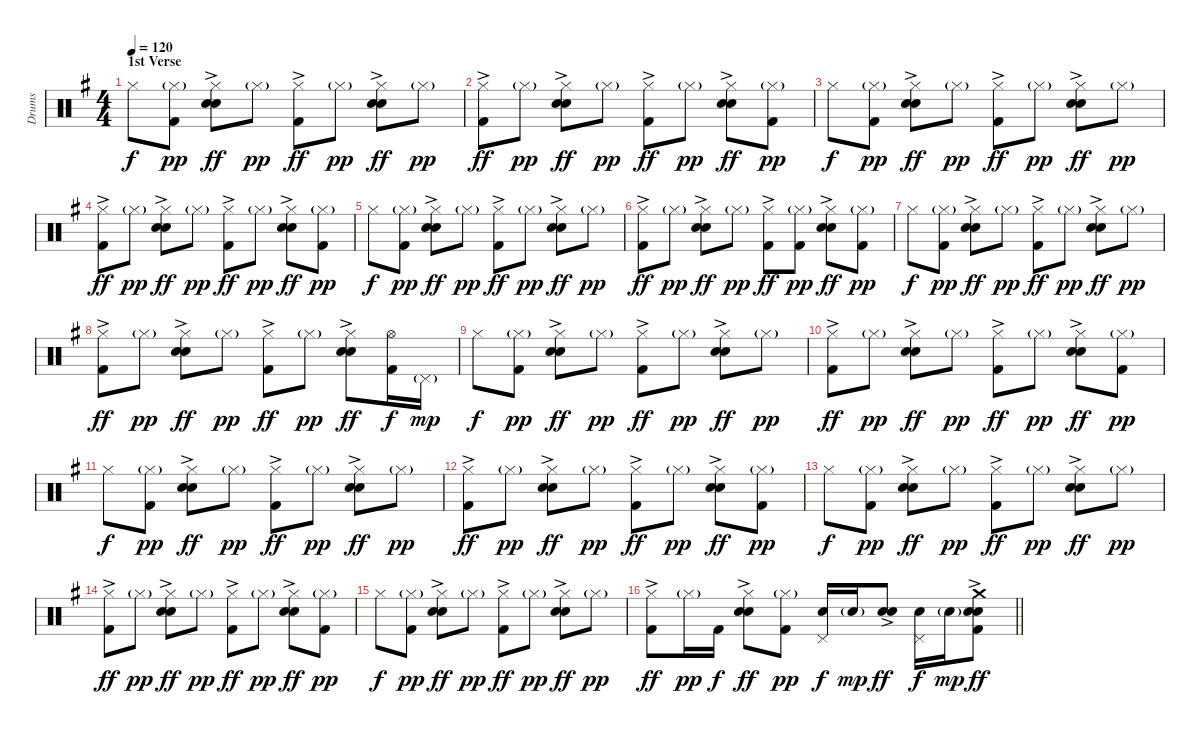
\track ("Drums" "Drums") {instrument percussion}
\staff {score}
\articulation defaults
\ts (4 4)
\section ("" "1st Verse")
\tempo 120
\clef neutral
\ks g "Hi-Hat (closed)".8{dy f}
("Hi-Hat (closed)"{g} "Kick (hit) 2").8{dy pp} ("Hi-Hat (closed)" "Electric Snare (hit)"{ac} "Snare (hit) 2").8{dy ff} "Hi-Hat (closed)"{g}.8{dy pp} ("Hi-Hat (closed)" "Kick (hit) 2"{ac}).8{dy ff} "Hi-Hat (closed)"{g}.8{dy pp} ("Hi-Hat (closed)" "Electric Snare (hit)"{ac} "Snare (hit) 2").8{dy ff} "Hi-Hat (closed)"{g}.8{dy pp} |
("Hi-Hat (closed)" "Kick (hit) 2"{ac}).8{dy ff} "Hi-Hat (closed)"{g}.8{dy pp} ("Hi-Hat (closed)" "Electric Snare (hit)"{ac} "Snare (hit) 2").8{dy ff} "Hi-Hat (closed)"{g}.8{dy pp} ("Hi-Hat (closed)" "Kick (hit) 2"{ac}).8{dy ff} "Hi-Hat (closed)"{g}.8{dy pp} ("Hi-Hat (closed)" "Electric Snare (hit)"{ac} "Snare (hit) 2").8{dy ff} ("Hi-Hat (closed)"{g} "Kick (hit) 2").8{dy pp} |
"Hi-Hat (closed)".8{dy f} ("Hi-Hat (closed)"{g} "Kick (hit) 2").8{dy pp} ("Hi-Hat (closed)" "Electric Snare (hit)"{ac} "Snare (hit) 2").8{dy ff} "Hi-Hat (closed)"{g}.8{dy pp} ("Hi-Hat (closed)" "Kick (hit) 2"{ac}).8{dy ff} "Hi-Hat (closed)"{g}.8{dy pp} ("Hi-Hat (closed)" "Electric Snare (hit)"{ac} "Snare (hit) 2").8{dy ff} "Hi-Hat (closed)"{g}.8{dy pp} |
("Hi-Hat (closed)" "Kick (hit) 2"{ac}).8{dy ff} "Hi-Hat (closed)"{g}.8{dy pp} ("Hi-Hat (closed)" "Electric Snare (hit)"{ac} "Snare (hit) 2").8{dy ff} "Hi-Hat (closed)"{g}.8{dy pp} ("Hi-Hat (closed)" "Kick (hit) 2"{ac}).8{dy ff} "Hi-Hat (closed)"{g}.8{dy pp} ("Hi-Hat (closed)" "Electric Snare (hit)"{ac} "Snare (hit) 2").8{dy ff} ("Hi-Hat (closed)"{g} "Kick (hit) 2").8{dy pp} |
"Hi-Hat (closed)".8{dy f} ("Hi-Hat (closed)"{g} "Kick (hit) 2").8{dy pp} ("Hi-Hat (closed)" "Electric Snare (hit)"{ac} "Snare (hit) 2").8{dy ff} "Hi-Hat (closed)"{g}.8{dy pp} ("Hi-Hat (closed)" "Kick (hit) 2"{ac}).8{dy ff} "Hi-Hat (closed)"{g}.8{dy pp} ("Hi-Hat (closed)" "Electric Snare (hit)"{ac} "Snare (hit) 2").8{dy ff} "Hi-Hat (closed)"{g}.8{dy pp} |
("Hi-Hat (closed)" "Kick (hit) 2"{ac}).8{dy ff} "Hi-Hat (closed)"{g}.8{dy pp} ("Hi-Hat (closed)" "Electric Snare (hit)"{ac} "Snare (hit) 2").8{dy ff} "Hi-Hat (closed)"{g}.8{dy pp} ("Hi-Hat (closed)" "Kick (hit) 2"{ac}).8{dy ff} ("Hi-Hat (closed)"{g} "Kick (hit) 2").8{dy pp} ("Hi-Hat (closed)" "Electric Snare (hit)"{ac} "Snare (hit) 2").8{dy ff} ("Hi-Hat (closed)"{g} "Kick (hit) 2").8{dy pp} |
"Hi-Hat (closed)".8{dy f} ("Hi-Hat (closed)"{g} "Kick (hit) 2").8{dy pp} ("Hi-Hat (closed)" "Electric Snare (hit)"{ac} "Snare (hit) 2").8{dy ff} "Hi-Hat (closed)"{g}.8{dy pp} ("Hi-Hat (closed)" "Kick (hit) 2"{ac}).8{dy ff} "Hi-Hat (closed)"{g}.8{dy pp} ("Hi-Hat (closed)" "Electric Snare (hit)"{ac} "Snare (hit) 2").8{dy ff} "Hi-Hat (closed)"{g}.8{dy pp} |
("Hi-Hat (closed)" "Kick (hit) 2"{ac}).8{dy ff} "Hi-Hat (closed)"{g}.8{dy pp} ("Hi-Hat (closed)" "Electric Snare (hit)"{ac} "Snare (hit) 2").8{dy ff} "Hi-Hat (closed)"{g}.8{dy pp} ("Hi-Hat (closed)" "Kick (hit) 2"{ac}).8{dy ff} "Hi-Hat (closed)"{g}.8{dy pp} ("Hi-Hat (closed)" "Electric Snare (hit)"{ac} "Snare (hit) 2").8{dy ff} ("Hi-Hat (open)" "Kick (hit) 2").16{dy f} "Pedal Hi-Hat (hit)"{g}.16{dy mp} |
"Hi-Hat (closed)".8{dy f} ("Hi-Hat (closed)"{g} "Kick (hit) 2").8{dy pp} ("Hi-Hat (closed)" "Electric Snare (hit)"{ac} "Snare (hit) 2").8{dy ff} "Hi-Hat (closed)"{g}.8{dy pp} ("Hi-Hat (closed)" "Kick (hit) 2"{ac}).8{dy ff} "Hi-Hat (closed)"{g}.8{dy pp} ("Hi-Hat (closed)" "Electric Snare (hit)"{ac} "Snare (hit) 2").8{dy ff} "Hi-Hat (closed)"{g}.8{dy pp} |
("Hi-Hat (closed)" "Kick (hit) 2"{ac}).8{dy ff} "Hi-Hat (closed)"{g}.8{dy pp} ("Hi-Hat (closed)" "Electric Snare (hit)"{ac} "Snare (hit) 2").8{dy ff} "Hi-Hat (closed)"{g}.8{dy pp} ("Hi-Hat (closed)" "Kick (hit) 2"{ac}).8{dy ff} "Hi-Hat (closed)"{g}.8{dy pp} ("Hi-Hat (closed)" "Electric Snare (hit)"{ac} "Snare (hit) 2").8{dy ff} ("Hi-Hat (closed)"{g} "Kick (hit) 2").8{dy pp} |
"Hi-Hat (closed)".8{dy f} ("Hi-Hat (closed)"{g} "Kick (hit) 2").8{dy pp} ("Hi-Hat (closed)" "Electric Snare (hit)"{ac} "Snare (hit) 2").8{dy ff} "Hi-Hat (closed)"{g}.8{dy pp} ("Hi-Hat (closed)" "Kick (hit) 2"{ac}).8{dy ff} "Hi-Hat (closed)"{g}.8{dy pp} ("Hi-Hat (closed)" "Electric Snare (hit)"{ac} "Snare (hit) 2").8{dy ff} "Hi-Hat (closed)"{g}.8{dy pp} |
("Hi-Hat (closed)" "Kick (hit) 2"{ac}).8{dy ff} "Hi-Hat (closed)"{g}.8{dy pp} ("Hi-Hat (closed)" "Electric Snare (hit)"{ac} "Snare (hit) 2").8{dy ff} "Hi-Hat (closed)"{g}.8{dy pp} ("Hi-Hat (closed)" "Kick (hit) 2"{ac}).8{dy ff} "Hi-Hat (closed)"{g}.8{dy pp} ("Hi-Hat (closed)" "Electric Snare (hit)"{ac} "Snare (hit) 2").8{dy ff} ("Hi-Hat (closed)"{g} "Kick (hit) 2").8{dy pp} |
"Hi-Hat (closed)".8{dy f} ("Hi-Hat (closed)"{g} "Kick (hit) 2").8{dy pp} ("Hi-Hat (closed)" "Electric Snare (hit)"{ac} "Snare (hit) 2").8{dy ff} "Hi-Hat (closed)"{g}.8{dy pp} ("Hi-Hat (closed)" "Kick (hit) 2"{ac}).8{dy ff} "Hi-Hat (closed)"{g}.8{dy pp} ("Hi-Hat (closed)" "Electric Snare (hit)"{ac} "Snare (hit) 2").8{dy ff} "Hi-Hat (closed)"{g}.8{dy pp} |
("Hi-Hat (closed)" "Kick (hit) 2"{ac}).8{dy ff} "Hi-Hat (closed)"{g}.8{dy pp} ("Hi-Hat (closed)" "Electric Snare (hit)"{ac} "Snare (hit) 2").8{dy ff} "Hi-Hat (closed)"{g}.8{dy pp} ("Hi-Hat (closed)" "Kick (hit) 2"{ac}).8{dy ff} "Hi-Hat (closed)"{g}.8{dy pp} ("Hi-Hat (closed)" "Electric Snare (hit)"{ac} "Snare (hit) 2").8{dy ff} ("Hi-Hat (closed)"{g} "Kick (hit) 2").8{dy pp} |
"Hi-Hat (closed)".8{dy f} ("Hi-Hat (closed)"{g} "Kick (hit) 2").8{dy pp} ("Hi-Hat (closed)" "Electric Snare (hit)"{ac} "Snare (hit) 2").8{dy ff} "Hi-Hat (closed)"{g}.8{dy pp} ("Hi-Hat (closed)" "Kick (hit) 2"{ac}).8{dy ff} "Hi-Hat (closed)"{g}.8{dy pp} ("Hi-Hat (closed)" "Electric Snare (hit)"{ac} "Snare (hit) 2").8{dy ff} "Hi-Hat (closed)"{g}.8{dy pp} |
\barLineRight lightlight
("Hi-Hat (closed)" "Kick (hit) 2"{ac}).8{dy ff} "Hi-Hat (closed)"{g}.16{dy pp} "Kick (hit) 2".16{dy f} ("Hi-Hat (closed)" "Electric Snare (hit)"{ac} "Snare (hit) 2").8{dy ff} ("Hi-Hat (closed)"{g} "Kick (hit) 2").8{dy pp} ("Pedal Hi-Hat (hit)" "Snare (hit) 2").16{dy f} "Snare (hit) 2"{g}.16{dy mp} ("Electric Snare (hit)"{ac} "Snare (hit) 2").8{dy ff} ("Pedal Hi-Hat (hit)" "Snare (hit) 2").16{dy f} "Snare (hit) 2"{g}.16{dy mp} ("Crash medium (hit)" "Electric Snare (hit)"{ac} "Snare (hit) 2" "Kick (hit) 2"{ac}).8{dy ff}
